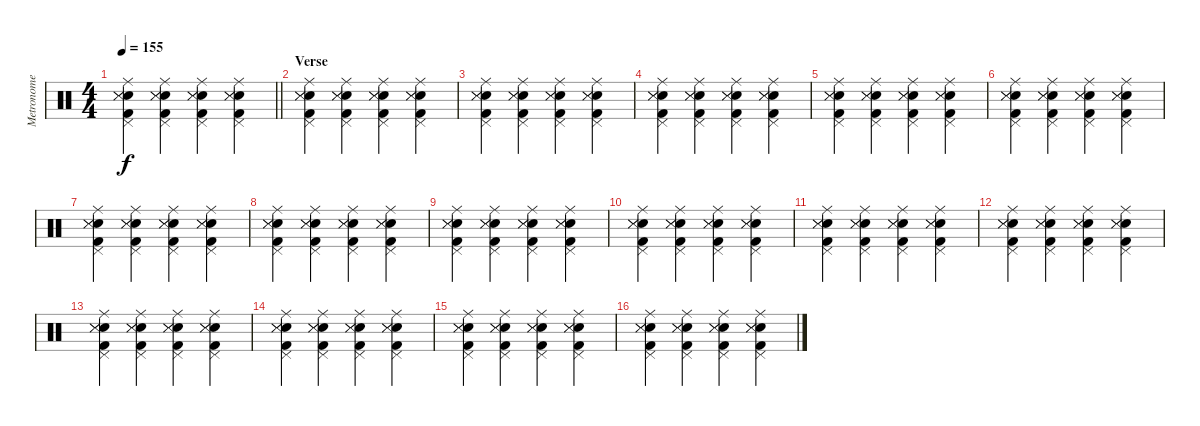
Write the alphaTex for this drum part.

\track ("Metronome" "Metronome") {mute instrument percussion}
\staff {score}
\articulation defaults
\ts (4 4)
\tempo 155
\clef neutral
\barLineRight lightlight
\ks c
("Ride (middle)" "Pedal Hi-Hat (hit)" "Electric Snare (hit)" "Snare (side stick) 3" "Metronome (hit)" "Kick (hit) 2").4{dy f} ("Ride (middle)" "Pedal Hi-Hat (hit)" "Electric Snare (hit)" "Snare (side stick) 3" "Metronome (hit)" "Kick (hit) 2").4 ("Ride (middle)" "Pedal Hi-Hat (hit)" "Electric Snare (hit)" "Snare (side stick) 3" "Metronome (hit)" "Kick (hit) 2").4 ("Ride (middle)" "Pedal Hi-Hat (hit)" "Electric Snare (hit)" "Snare (side stick) 3" "Metronome (hit)" "Kick (hit) 2").4 |
\section ("" "Verse")
("Ride (middle)" "Pedal Hi-Hat (hit)" "Electric Snare (hit)" "Snare (side stick) 3" "Metronome (hit)" "Kick (hit) 2").4 ("Ride (middle)" "Pedal Hi-Hat (hit)" "Electric Snare (hit)" "Snare (side stick) 3" "Metronome (hit)" "Kick (hit) 2").4 ("Ride (middle)" "Pedal Hi-Hat (hit)" "Electric Snare (hit)" "Snare (side stick) 3" "Metronome (hit)" "Kick (hit) 2").4 ("Ride (middle)" "Pedal Hi-Hat (hit)" "Electric Snare (hit)" "Snare (side stick) 3" "Metronome (hit)" "Kick (hit) 2").4 |
("Ride (middle)" "Pedal Hi-Hat (hit)" "Electric Snare (hit)" "Snare (side stick) 3" "Metronome (hit)" "Kick (hit) 2").4 ("Ride (middle)" "Pedal Hi-Hat (hit)" "Electric Snare (hit)" "Snare (side stick) 3" "Metronome (hit)" "Kick (hit) 2").4 ("Ride (middle)" "Pedal Hi-Hat (hit)" "Electric Snare (hit)" "Snare (side stick) 3" "Metronome (hit)" "Kick (hit) 2").4 ("Ride (middle)" "Pedal Hi-Hat (hit)" "Electric Snare (hit)" "Snare (side stick) 3" "Metronome (hit)" "Kick (hit) 2").4 |
("Ride (middle)" "Pedal Hi-Hat (hit)" "Electric Snare (hit)" "Snare (side stick) 3" "Metronome (hit)" "Kick (hit) 2").4 ("Ride (middle)" "Pedal Hi-Hat (hit)" "Electric Snare (hit)" "Snare (side stick) 3" "Metronome (hit)" "Kick (hit) 2").4 ("Ride (middle)" "Pedal Hi-Hat (hit)" "Electric Snare (hit)" "Snare (side stick) 3" "Metronome (hit)" "Kick (hit) 2").4 ("Ride (middle)" "Pedal Hi-Hat (hit)" "Electric Snare (hit)" "Snare (side stick) 3" "Metronome (hit)" "Kick (hit) 2").4 |
("Ride (middle)" "Pedal Hi-Hat (hit)" "Electric Snare (hit)" "Snare (side stick) 3" "Metronome (hit)" "Kick (hit) 2").4 ("Ride (middle)" "Pedal Hi-Hat (hit)" "Electric Snare (hit)" "Snare (side stick) 3" "Metronome (hit)" "Kick (hit) 2").4 ("Ride (middle)" "Pedal Hi-Hat (hit)" "Electric Snare (hit)" "Snare (side stick) 3" "Metronome (hit)" "Kick (hit) 2").4 ("Ride (middle)" "Pedal Hi-Hat (hit)" "Electric Snare (hit)" "Snare (side stick) 3" "Metronome (hit)" "Kick (hit) 2").4 |
("Ride (middle)" "Pedal Hi-Hat (hit)" "Electric Snare (hit)" "Snare (side stick) 3" "Metronome (hit)" "Kick (hit) 2").4 ("Ride (middle)" "Pedal Hi-Hat (hit)" "Electric Snare (hit)" "Snare (side stick) 3" "Metronome (hit)" "Kick (hit) 2").4 ("Ride (middle)" "Pedal Hi-Hat (hit)" "Electric Snare (hit)" "Snare (side stick) 3" "Metronome (hit)" "Kick (hit) 2").4 ("Ride (middle)" "Pedal Hi-Hat (hit)" "Electric Snare (hit)" "Snare (side stick) 3" "Metronome (hit)" "Kick (hit) 2").4 |
("Ride (middle)" "Pedal Hi-Hat (hit)" "Electric Snare (hit)" "Snare (side stick) 3" "Metronome (hit)" "Kick (hit) 2").4 ("Ride (middle)" "Pedal Hi-Hat (hit)" "Electric Snare (hit)" "Snare (side stick) 3" "Metronome (hit)" "Kick (hit) 2").4 ("Ride (middle)" "Pedal Hi-Hat (hit)" "Electric Snare (hit)" "Snare (side stick) 3" "Metronome (hit)" "Kick (hit) 2").4 ("Ride (middle)" "Pedal Hi-Hat (hit)" "Electric Snare (hit)" "Snare (side stick) 3" "Metronome (hit)" "Kick (hit) 2").4 |
("Ride (middle)" "Pedal Hi-Hat (hit)" "Electric Snare (hit)" "Snare (side stick) 3" "Metronome (hit)" "Kick (hit) 2").4 ("Ride (middle)" "Pedal Hi-Hat (hit)" "Electric Snare (hit)" "Snare (side stick) 3" "Metronome (hit)" "Kick (hit) 2").4 ("Ride (middle)" "Pedal Hi-Hat (hit)" "Electric Snare (hit)" "Snare (side stick) 3" "Metronome (hit)" "Kick (hit) 2").4 ("Ride (middle)" "Pedal Hi-Hat (hit)" "Electric Snare (hit)" "Snare (side stick) 3" "Metronome (hit)" "Kick (hit) 2").4 |
("Ride (middle)" "Pedal Hi-Hat (hit)" "Electric Snare (hit)" "Snare (side stick) 3" "Metronome (hit)" "Kick (hit) 2").4 ("Ride (middle)" "Pedal Hi-Hat (hit)" "Electric Snare (hit)" "Snare (side stick) 3" "Metronome (hit)" "Kick (hit) 2").4 ("Ride (middle)" "Pedal Hi-Hat (hit)" "Electric Snare (hit)" "Snare (side stick) 3" "Metronome (hit)" "Kick (hit) 2").4 ("Ride (middle)" "Pedal Hi-Hat (hit)" "Electric Snare (hit)" "Snare (side stick) 3" "Metronome (hit)" "Kick (hit) 2").4 |
("Ride (middle)" "Pedal Hi-Hat (hit)" "Electric Snare (hit)" "Snare (side stick) 3" "Metronome (hit)" "Kick (hit) 2").4 ("Ride (middle)" "Pedal Hi-Hat (hit)" "Electric Snare (hit)" "Snare (side stick) 3" "Metronome (hit)" "Kick (hit) 2").4 ("Ride (middle)" "Pedal Hi-Hat (hit)" "Electric Snare (hit)" "Snare (side stick) 3" "Metronome (hit)" "Kick (hit) 2").4 ("Ride (middle)" "Pedal Hi-Hat (hit)" "Electric Snare (hit)" "Snare (side stick) 3" "Metronome (hit)" "Kick (hit) 2").4 |
("Ride (middle)" "Pedal Hi-Hat (hit)" "Electric Snare (hit)" "Snare (side stick) 3" "Metronome (hit)" "Kick (hit) 2").4 ("Ride (middle)" "Pedal Hi-Hat (hit)" "Electric Snare (hit)" "Snare (side stick) 3" "Metronome (hit)" "Kick (hit) 2").4 ("Ride (middle)" "Pedal Hi-Hat (hit)" "Electric Snare (hit)" "Snare (side stick) 3" "Metronome (hit)" "Kick (hit) 2").4 ("Ride (middle)" "Pedal Hi-Hat (hit)" "Electric Snare (hit)" "Snare (side stick) 3" "Metronome (hit)" "Kick (hit) 2").4 |
("Ride (middle)" "Pedal Hi-Hat (hit)" "Electric Snare (hit)" "Snare (side stick) 3" "Metronome (hit)" "Kick (hit) 2").4 ("Ride (middle)" "Pedal Hi-Hat (hit)" "Electric Snare (hit)" "Snare (side stick) 3" "Metronome (hit)" "Kick (hit) 2").4 ("Ride (middle)" "Pedal Hi-Hat (hit)" "Electric Snare (hit)" "Snare (side stick) 3" "Metronome (hit)" "Kick (hit) 2").4 ("Ride (middle)" "Pedal Hi-Hat (hit)" "Electric Snare (hit)" "Snare (side stick) 3" "Metronome (hit)" "Kick (hit) 2").4 |
("Ride (middle)" "Pedal Hi-Hat (hit)" "Electric Snare (hit)" "Snare (side stick) 3" "Metronome (hit)" "Kick (hit) 2").4 ("Ride (middle)" "Pedal Hi-Hat (hit)" "Electric Snare (hit)" "Snare (side stick) 3" "Metronome (hit)" "Kick (hit) 2").4 ("Ride (middle)" "Pedal Hi-Hat (hit)" "Electric Snare (hit)" "Snare (side stick) 3" "Metronome (hit)" "Kick (hit) 2").4 ("Ride (middle)" "Pedal Hi-Hat (hit)" "Electric Snare (hit)" "Snare (side stick) 3" "Metronome (hit)" "Kick (hit) 2").4 |
("Ride (middle)" "Pedal Hi-Hat (hit)" "Electric Snare (hit)" "Snare (side stick) 3" "Metronome (hit)" "Kick (hit) 2").4 ("Ride (middle)" "Pedal Hi-Hat (hit)" "Electric Snare (hit)" "Snare (side stick) 3" "Metronome (hit)" "Kick (hit) 2").4 ("Ride (middle)" "Pedal Hi-Hat (hit)" "Electric Snare (hit)" "Snare (side stick) 3" "Metronome (hit)" "Kick (hit) 2").4 ("Ride (middle)" "Pedal Hi-Hat (hit)" "Electric Snare (hit)" "Snare (side stick) 3" "Metronome (hit)" "Kick (hit) 2").4 |
("Ride (middle)" "Pedal Hi-Hat (hit)" "Electric Snare (hit)" "Snare (side stick) 3" "Metronome (hit)" "Kick (hit) 2").4 ("Ride (middle)" "Pedal Hi-Hat (hit)" "Electric Snare (hit)" "Snare (side stick) 3" "Metronome (hit)" "Kick (hit) 2").4 ("Ride (middle)" "Pedal Hi-Hat (hit)" "Electric Snare (hit)" "Snare (side stick) 3" "Metronome (hit)" "Kick (hit) 2").4 ("Ride (middle)" "Pedal Hi-Hat (hit)" "Electric Snare (hit)" "Snare (side stick) 3" "Metronome (hit)" "Kick (hit) 2").4 |
("Ride (middle)" "Pedal Hi-Hat (hit)" "Electric Snare (hit)" "Snare (side stick) 3" "Metronome (hit)" "Kick (hit) 2").4 ("Ride (middle)" "Pedal Hi-Hat (hit)" "Electric Snare (hit)" "Snare (side stick) 3" "Metronome (hit)" "Kick (hit) 2").4 ("Ride (middle)" "Pedal Hi-Hat (hit)" "Electric Snare (hit)" "Snare (side stick) 3" "Metronome (hit)" "Kick (hit) 2").4 ("Ride (middle)" "Pedal Hi-Hat (hit)" "Electric Snare (hit)" "Snare (side stick) 3" "Metronome (hit)" "Kick (hit) 2").4
